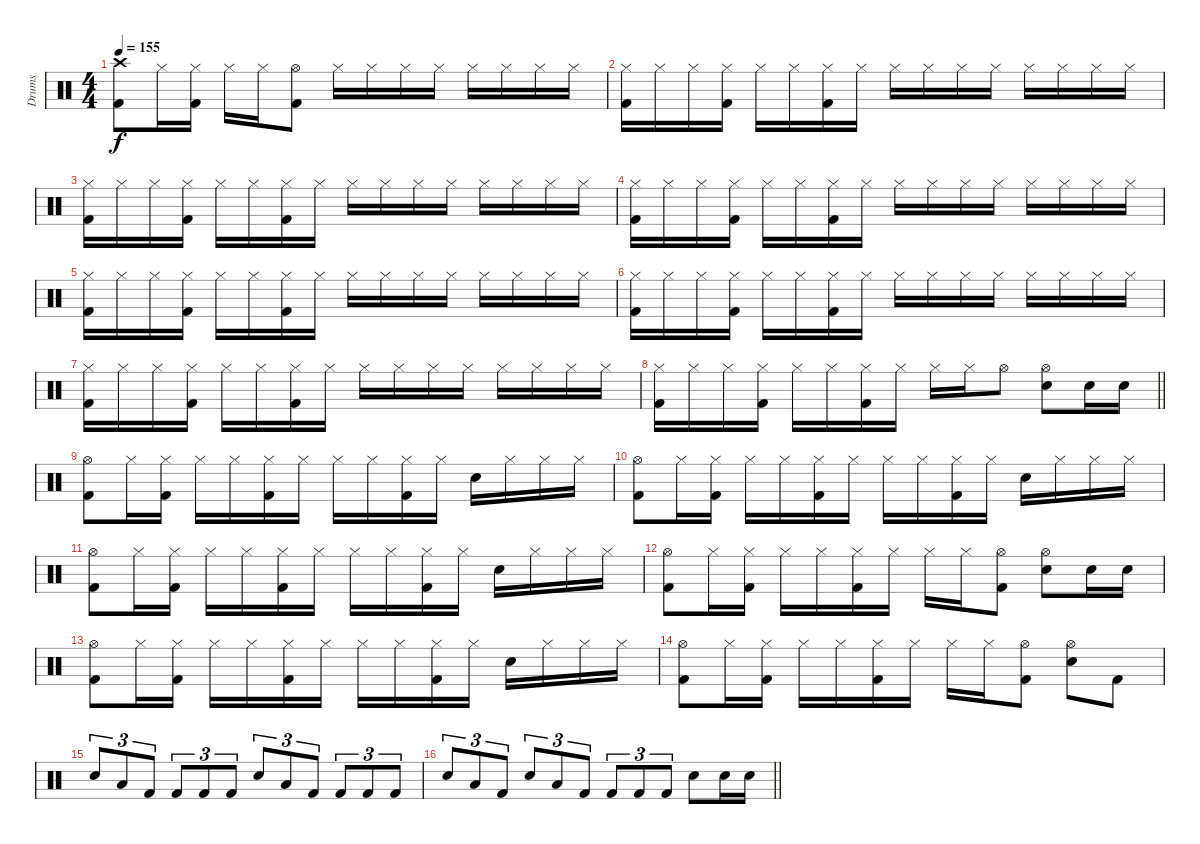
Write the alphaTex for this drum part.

\track ("Drums" "Drums") {instrument percussion}
\staff {score}
\articulation defaults
\ts (4 4)
\tempo 155
\clef neutral
\ks c
("Crash high (hit)" "Kick (hit) 2").8{dy f} "Hi-Hat (closed)".16 ("Hi-Hat (closed)" "Kick (hit) 2").16 "Hi-Hat (closed)".16 "Hi-Hat (closed)".16 ("Hi-Hat (open)" "Kick (hit) 2").8 "Hi-Hat (closed)".16 "Hi-Hat (closed)".16 "Hi-Hat (closed)".16 "Hi-Hat (closed)".16 "Hi-Hat (closed)".16 "Hi-Hat (closed)".16 "Hi-Hat (closed)".16 "Hi-Hat (closed)".16 |
("Hi-Hat (closed)" "Kick (hit) 2").16 "Hi-Hat (closed)".16 "Hi-Hat (closed)".16 ("Hi-Hat (closed)" "Kick (hit) 2").16 "Hi-Hat (closed)".16 "Hi-Hat (closed)".16 ("Hi-Hat (closed)" "Kick (hit) 2").16 "Hi-Hat (closed)".16 "Hi-Hat (closed)".16 "Hi-Hat (closed)".16 "Hi-Hat (closed)".16 "Hi-Hat (closed)".16 "Hi-Hat (closed)".16 "Hi-Hat (closed)".16 "Hi-Hat (closed)".16 "Hi-Hat (closed)".16 |
("Hi-Hat (closed)" "Kick (hit) 2").16 "Hi-Hat (closed)".16 "Hi-Hat (closed)".16 ("Hi-Hat (closed)" "Kick (hit) 2").16 "Hi-Hat (closed)".16 "Hi-Hat (closed)".16 ("Hi-Hat (closed)" "Kick (hit) 2").16 "Hi-Hat (closed)".16 "Hi-Hat (closed)".16 "Hi-Hat (closed)".16 "Hi-Hat (closed)".16 "Hi-Hat (closed)".16 "Hi-Hat (closed)".16 "Hi-Hat (closed)".16 "Hi-Hat (closed)".16 "Hi-Hat (closed)".16 |
("Hi-Hat (closed)" "Kick (hit) 2").16 "Hi-Hat (closed)".16 "Hi-Hat (closed)".16 ("Hi-Hat (closed)" "Kick (hit) 2").16 "Hi-Hat (closed)".16 "Hi-Hat (closed)".16 ("Hi-Hat (closed)" "Kick (hit) 2").16 "Hi-Hat (closed)".16 "Hi-Hat (closed)".16 "Hi-Hat (closed)".16 "Hi-Hat (closed)".16 "Hi-Hat (closed)".16 "Hi-Hat (closed)".16 "Hi-Hat (closed)".16 "Hi-Hat (closed)".16 "Hi-Hat (closed)".16 |
("Hi-Hat (closed)" "Kick (hit) 2").16 "Hi-Hat (closed)".16 "Hi-Hat (closed)".16 ("Hi-Hat (closed)" "Kick (hit) 2").16 "Hi-Hat (closed)".16 "Hi-Hat (closed)".16 ("Hi-Hat (closed)" "Kick (hit) 2").16 "Hi-Hat (closed)".16 "Hi-Hat (closed)".16 "Hi-Hat (closed)".16 "Hi-Hat (closed)".16 "Hi-Hat (closed)".16 "Hi-Hat (closed)".16 "Hi-Hat (closed)".16 "Hi-Hat (closed)".16 "Hi-Hat (closed)".16 |
("Hi-Hat (closed)" "Kick (hit) 2").16 "Hi-Hat (closed)".16 "Hi-Hat (closed)".16 ("Hi-Hat (closed)" "Kick (hit) 2").16 "Hi-Hat (closed)".16 "Hi-Hat (closed)".16 ("Hi-Hat (closed)" "Kick (hit) 2").16 "Hi-Hat (closed)".16 "Hi-Hat (closed)".16 "Hi-Hat (closed)".16 "Hi-Hat (closed)".16 "Hi-Hat (closed)".16 "Hi-Hat (closed)".16 "Hi-Hat (closed)".16 "Hi-Hat (closed)".16 "Hi-Hat (closed)".16 |
("Hi-Hat (closed)" "Kick (hit) 2").16 "Hi-Hat (closed)".16 "Hi-Hat (closed)".16 ("Hi-Hat (closed)" "Kick (hit) 2").16 "Hi-Hat (closed)".16 "Hi-Hat (closed)".16 ("Hi-Hat (closed)" "Kick (hit) 2").16 "Hi-Hat (closed)".16 "Hi-Hat (closed)".16 "Hi-Hat (closed)".16 "Hi-Hat (closed)".16 "Hi-Hat (closed)".16 "Hi-Hat (closed)".16 "Hi-Hat (closed)".16 "Hi-Hat (closed)".16 "Hi-Hat (closed)".16 |
\barLineRight lightlight
("Hi-Hat (closed)" "Kick (hit) 2").16 "Hi-Hat (closed)".16 "Hi-Hat (closed)".16 ("Hi-Hat (closed)" "Kick (hit) 2").16 "Hi-Hat (closed)".16 "Hi-Hat (closed)".16 ("Hi-Hat (closed)" "Kick (hit) 2").16 "Hi-Hat (closed)".16 "Hi-Hat (closed)".16 "Hi-Hat (closed)".16 "Hi-Hat (open)".8 ("Hi-Hat (open)" "Snare (hit) 2").8 "Snare (hit) 2".16 "Snare (hit) 2".16 |
("Hi-Hat (open)" "Kick (hit) 2").8 "Hi-Hat (closed)".16 ("Hi-Hat (closed)" "Kick (hit) 2").16 "Hi-Hat (closed)".16 "Hi-Hat (closed)".16 ("Hi-Hat (closed)" "Kick (hit) 2").16 "Hi-Hat (closed)".16 "Hi-Hat (closed)".16 "Hi-Hat (closed)".16 ("Hi-Hat (closed)" "Kick (hit) 2").16 "Hi-Hat (closed)".16 "Snare (hit) 2".16 "Hi-Hat (closed)".16 "Hi-Hat (closed)".16 "Hi-Hat (closed)".16 |
("Hi-Hat (open)" "Kick (hit) 2").8 "Hi-Hat (closed)".16 ("Hi-Hat (closed)" "Kick (hit) 2").16 "Hi-Hat (closed)".16 "Hi-Hat (closed)".16 ("Hi-Hat (closed)" "Kick (hit) 2").16 "Hi-Hat (closed)".16 "Hi-Hat (closed)".16 "Hi-Hat (closed)".16 ("Hi-Hat (closed)" "Kick (hit) 2").16 "Hi-Hat (closed)".16 "Snare (hit) 2".16 "Hi-Hat (closed)".16 "Hi-Hat (closed)".16 "Hi-Hat (closed)".16 |
("Hi-Hat (open)" "Kick (hit) 2").8 "Hi-Hat (closed)".16 ("Hi-Hat (closed)" "Kick (hit) 2").16 "Hi-Hat (closed)".16 "Hi-Hat (closed)".16 ("Hi-Hat (closed)" "Kick (hit) 2").16 "Hi-Hat (closed)".16 "Hi-Hat (closed)".16 "Hi-Hat (closed)".16 ("Hi-Hat (closed)" "Kick (hit) 2").16 "Hi-Hat (closed)".16 "Snare (hit) 2".16 "Hi-Hat (closed)".16 "Hi-Hat (closed)".16 "Hi-Hat (closed)".16 |
("Hi-Hat (open)" "Kick (hit) 2").8 "Hi-Hat (closed)".16 ("Hi-Hat (closed)" "Kick (hit) 2").16 "Hi-Hat (closed)".16 "Hi-Hat (closed)".16 ("Hi-Hat (closed)" "Kick (hit) 2").16 "Hi-Hat (closed)".16 "Hi-Hat (closed)".16 "Hi-Hat (closed)".16 ("Hi-Hat (open)" "Kick (hit) 2").8 ("Hi-Hat (open)" "Snare (hit) 2").8 "Snare (hit) 2".16 "Snare (hit) 2".16 |
("Hi-Hat (open)" "Kick (hit) 2").8 "Hi-Hat (closed)".16 ("Hi-Hat (closed)" "Kick (hit) 2").16 "Hi-Hat (closed)".16 "Hi-Hat (closed)".16 ("Hi-Hat (closed)" "Kick (hit) 2").16 "Hi-Hat (closed)".16 "Hi-Hat (closed)".16 "Hi-Hat (closed)".16 ("Hi-Hat (closed)" "Kick (hit) 2").16 "Hi-Hat (closed)".16 "Snare (hit) 2".16 "Hi-Hat (closed)".16 "Hi-Hat (closed)".16 "Hi-Hat (closed)".16 |
("Hi-Hat (open)" "Kick (hit) 2").8 "Hi-Hat (closed)".16 ("Hi-Hat (closed)" "Kick (hit) 2").16 "Hi-Hat (closed)".16 "Hi-Hat (closed)".16 ("Hi-Hat (closed)" "Kick (hit) 2").16 "Hi-Hat (closed)".16 "Hi-Hat (closed)".16 "Hi-Hat (closed)".16 ("Hi-Hat (open)" "Kick (hit) 2").8 ("Hi-Hat (open)" "Snare (hit) 2").8 "Kick (hit) 2".8 |
"Snare (hit) 2".8{tu (3 2)} "Low Tom (hit)".8{tu (3 2)} "Kick (hit) 2".8{tu (3 2)} "Kick (hit) 2".8{tu (3 2)} "Kick (hit) 2".8{tu (3 2)} "Kick (hit) 2".8{tu (3 2)} "Snare (hit) 2".8{tu (3 2)} "Low Tom (hit)".8{tu (3 2)} "Kick (hit) 2".8{tu (3 2)} "Kick (hit) 2".8{tu (3 2)} "Kick (hit) 2".8{tu (3 2)} "Kick (hit) 2".8{tu (3 2)} |
\barLineRight lightlight "Snare (hit) 2".8{tu (3 2)} "Low Tom (hit)".8{tu (3 2)} "Kick (hit) 2".8{tu (3 2)} "Snare (hit) 2".8{tu (3 2)} "Low Tom (hit)".8{tu (3 2)} "Kick (hit) 2".8{tu (3 2)} "Kick (hit) 2".8{tu (3 2)} "Kick (hit) 2".8{tu (3 2)} "Kick (hit) 2".8{tu (3 2)} "Snare (hit) 2".8 "Snare (hit) 2".16 "Snare (hit) 2".16
